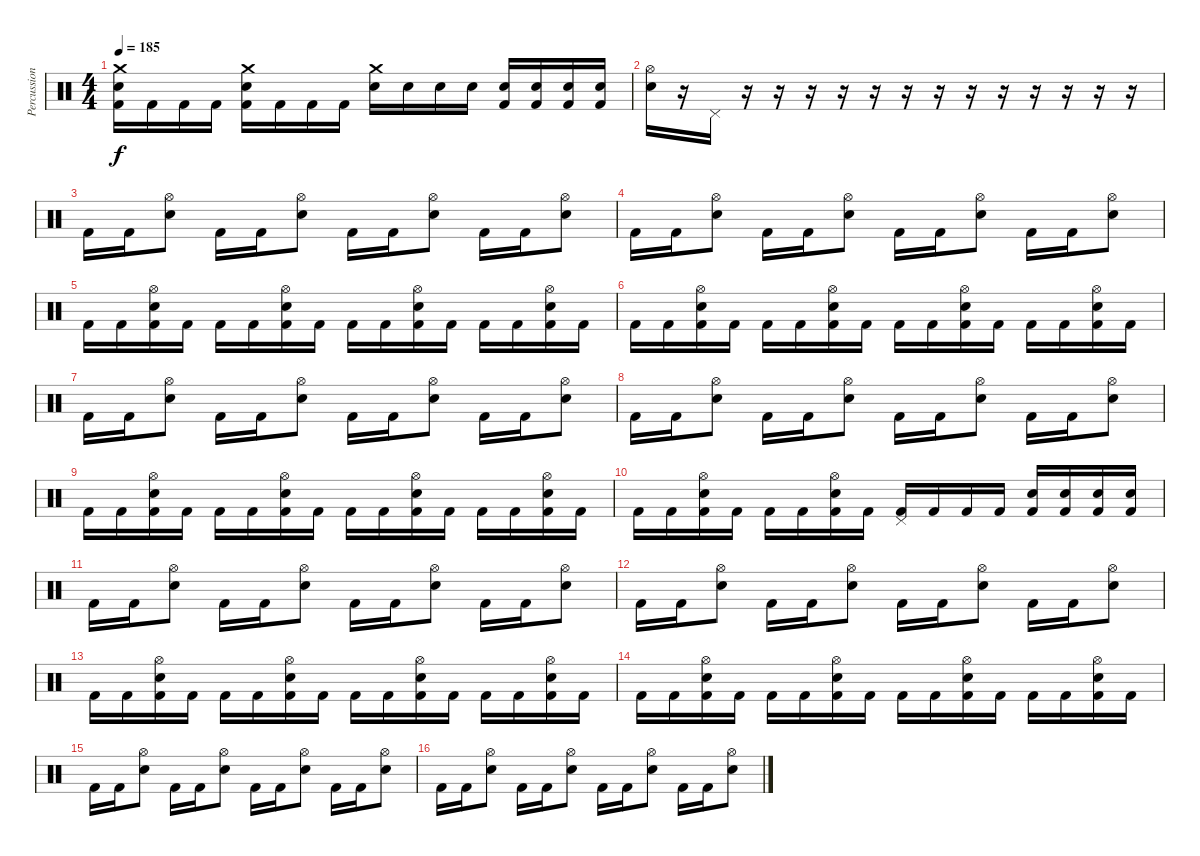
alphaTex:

\track ("Percussion" "Percussion") {instrument percussion}
\staff {score}
\articulation defaults
\ts (4 4)
\tempo 185
\clef neutral
\ks c
("Crash medium (hit)" "Electric Snare (hit)" "Kick (hit) 2").16{dy f} "Kick (hit) 2".16 "Kick (hit) 2".16 "Kick (hit) 2".16 ("Crash medium (hit)" "Electric Snare (hit)" "Kick (hit) 2").16 "Kick (hit) 2".16 "Kick (hit) 2".16 "Kick (hit) 2".16 ("Crash medium (hit)" "Electric Snare (hit)").16 "Electric Snare (hit)".16 "Electric Snare (hit)".16 "Electric Snare (hit)".16 ("Electric Snare (hit)" "Kick (hit) 2").16 ("Electric Snare (hit)" "Kick (hit) 2").16 ("Electric Snare (hit)" "Kick (hit) 2").16 ("Electric Snare (hit)" "Kick (hit) 2").16 |
("Hi-Hat (open)" "Electric Snare (hit)").16 r.16 "Pedal Hi-Hat (hit)".16 r.16 r.16 r.16 r.16 r.16 r.16 r.16 r.16 r.16 r.16 r.16 r.16 r.16 |
"Kick (hit) 2".16 "Kick (hit) 2".16 ("Hi-Hat (open)" "Electric Snare (hit)").8 "Kick (hit) 2".16 "Kick (hit) 2".16 ("Hi-Hat (open)" "Electric Snare (hit)").8 "Kick (hit) 2".16 "Kick (hit) 2".16 ("Hi-Hat (open)" "Electric Snare (hit)").8 "Kick (hit) 2".16 "Kick (hit) 2".16 ("Hi-Hat (open)" "Electric Snare (hit)").8 |
"Kick (hit) 2".16 "Kick (hit) 2".16 ("Hi-Hat (open)" "Electric Snare (hit)").8 "Kick (hit) 2".16 "Kick (hit) 2".16 ("Hi-Hat (open)" "Electric Snare (hit)").8 "Kick (hit) 2".16 "Kick (hit) 2".16 ("Hi-Hat (open)" "Electric Snare (hit)").8 "Kick (hit) 2".16 "Kick (hit) 2".16 ("Hi-Hat (open)" "Electric Snare (hit)").8 |
"Kick (hit) 2".16 "Kick (hit) 2".16 ("Hi-Hat (open)" "Electric Snare (hit)" "Kick (hit) 2").16 "Kick (hit) 2".16 "Kick (hit) 2".16 "Kick (hit) 2".16 ("Hi-Hat (open)" "Electric Snare (hit)" "Kick (hit) 2").16 "Kick (hit) 2".16 "Kick (hit) 2".16 "Kick (hit) 2".16 ("Hi-Hat (open)" "Electric Snare (hit)" "Kick (hit) 2").16 "Kick (hit) 2".16 "Kick (hit) 2".16 "Kick (hit) 2".16 ("Hi-Hat (open)" "Electric Snare (hit)" "Kick (hit) 2").16 "Kick (hit) 2".16 |
"Kick (hit) 2".16 "Kick (hit) 2".16 ("Hi-Hat (open)" "Electric Snare (hit)" "Kick (hit) 2").16 "Kick (hit) 2".16 "Kick (hit) 2".16 "Kick (hit) 2".16 ("Hi-Hat (open)" "Electric Snare (hit)" "Kick (hit) 2").16 "Kick (hit) 2".16 "Kick (hit) 2".16 "Kick (hit) 2".16 ("Hi-Hat (open)" "Electric Snare (hit)" "Kick (hit) 2").16 "Kick (hit) 2".16 "Kick (hit) 2".16 "Kick (hit) 2".16 ("Hi-Hat (open)" "Electric Snare (hit)" "Kick (hit) 2").16 "Kick (hit) 2".16 |
"Kick (hit) 2".16 "Kick (hit) 2".16 ("Hi-Hat (open)" "Electric Snare (hit)").8 "Kick (hit) 2".16 "Kick (hit) 2".16 ("Hi-Hat (open)" "Electric Snare (hit)").8 "Kick (hit) 2".16 "Kick (hit) 2".16 ("Hi-Hat (open)" "Electric Snare (hit)").8 "Kick (hit) 2".16 "Kick (hit) 2".16 ("Hi-Hat (open)" "Electric Snare (hit)").8 |
"Kick (hit) 2".16 "Kick (hit) 2".16 ("Hi-Hat (open)" "Electric Snare (hit)").8 "Kick (hit) 2".16 "Kick (hit) 2".16 ("Hi-Hat (open)" "Electric Snare (hit)").8 "Kick (hit) 2".16 "Kick (hit) 2".16 ("Hi-Hat (open)" "Electric Snare (hit)").8 "Kick (hit) 2".16 "Kick (hit) 2".16 ("Hi-Hat (open)" "Electric Snare (hit)").8 |
"Kick (hit) 2".16 "Kick (hit) 2".16 ("Hi-Hat (open)" "Electric Snare (hit)" "Kick (hit) 2").16 "Kick (hit) 2".16 "Kick (hit) 2".16 "Kick (hit) 2".16 ("Hi-Hat (open)" "Electric Snare (hit)" "Kick (hit) 2").16 "Kick (hit) 2".16 "Kick (hit) 2".16 "Kick (hit) 2".16 ("Hi-Hat (open)" "Electric Snare (hit)" "Kick (hit) 2").16 "Kick (hit) 2".16 "Kick (hit) 2".16 "Kick (hit) 2".16 ("Hi-Hat (open)" "Electric Snare (hit)" "Kick (hit) 2").16 "Kick (hit) 2".16 |
"Kick (hit) 2".16 "Kick (hit) 2".16 ("Hi-Hat (open)" "Electric Snare (hit)" "Kick (hit) 2").16 "Kick (hit) 2".16 "Kick (hit) 2".16 "Kick (hit) 2".16 ("Hi-Hat (open)" "Electric Snare (hit)" "Kick (hit) 2").16 "Kick (hit) 2".16 ("Pedal Hi-Hat (hit)" "Kick (hit) 2").16 "Kick (hit) 2".16 "Kick (hit) 2".16 "Kick (hit) 2".16 ("Electric Snare (hit)" "Kick (hit) 2").16 ("Electric Snare (hit)" "Kick (hit) 2").16 ("Electric Snare (hit)" "Kick (hit) 2").16 ("Electric Snare (hit)" "Kick (hit) 2").16 |
"Kick (hit) 2".16 "Kick (hit) 2".16 ("Hi-Hat (open)" "Electric Snare (hit)").8 "Kick (hit) 2".16 "Kick (hit) 2".16 ("Hi-Hat (open)" "Electric Snare (hit)").8 "Kick (hit) 2".16 "Kick (hit) 2".16 ("Hi-Hat (open)" "Electric Snare (hit)").8 "Kick (hit) 2".16 "Kick (hit) 2".16 ("Hi-Hat (open)" "Electric Snare (hit)").8 |
"Kick (hit) 2".16 "Kick (hit) 2".16 ("Hi-Hat (open)" "Electric Snare (hit)").8 "Kick (hit) 2".16 "Kick (hit) 2".16 ("Hi-Hat (open)" "Electric Snare (hit)").8 "Kick (hit) 2".16 "Kick (hit) 2".16 ("Hi-Hat (open)" "Electric Snare (hit)").8 "Kick (hit) 2".16 "Kick (hit) 2".16 ("Hi-Hat (open)" "Electric Snare (hit)").8 |
"Kick (hit) 2".16 "Kick (hit) 2".16 ("Hi-Hat (open)" "Electric Snare (hit)" "Kick (hit) 2").16 "Kick (hit) 2".16 "Kick (hit) 2".16 "Kick (hit) 2".16 ("Hi-Hat (open)" "Electric Snare (hit)" "Kick (hit) 2").16 "Kick (hit) 2".16 "Kick (hit) 2".16 "Kick (hit) 2".16 ("Hi-Hat (open)" "Electric Snare (hit)" "Kick (hit) 2").16 "Kick (hit) 2".16 "Kick (hit) 2".16 "Kick (hit) 2".16 ("Hi-Hat (open)" "Electric Snare (hit)" "Kick (hit) 2").16 "Kick (hit) 2".16 |
"Kick (hit) 2".16 "Kick (hit) 2".16 ("Hi-Hat (open)" "Electric Snare (hit)" "Kick (hit) 2").16 "Kick (hit) 2".16 "Kick (hit) 2".16 "Kick (hit) 2".16 ("Hi-Hat (open)" "Electric Snare (hit)" "Kick (hit) 2").16 "Kick (hit) 2".16 "Kick (hit) 2".16 "Kick (hit) 2".16 ("Hi-Hat (open)" "Electric Snare (hit)" "Kick (hit) 2").16 "Kick (hit) 2".16 "Kick (hit) 2".16 "Kick (hit) 2".16 ("Hi-Hat (open)" "Electric Snare (hit)" "Kick (hit) 2").16 "Kick (hit) 2".16 |
"Kick (hit) 2".16 "Kick (hit) 2".16 ("Hi-Hat (open)" "Electric Snare (hit)").8 "Kick (hit) 2".16 "Kick (hit) 2".16 ("Hi-Hat (open)" "Electric Snare (hit)").8 "Kick (hit) 2".16 "Kick (hit) 2".16 ("Hi-Hat (open)" "Electric Snare (hit)").8 "Kick (hit) 2".16 "Kick (hit) 2".16 ("Hi-Hat (open)" "Electric Snare (hit)").8 |
"Kick (hit) 2".16 "Kick (hit) 2".16 ("Hi-Hat (open)" "Electric Snare (hit)").8 "Kick (hit) 2".16 "Kick (hit) 2".16 ("Hi-Hat (open)" "Electric Snare (hit)").8 "Kick (hit) 2".16 "Kick (hit) 2".16 ("Hi-Hat (open)" "Electric Snare (hit)").8 "Kick (hit) 2".16 "Kick (hit) 2".16 ("Hi-Hat (open)" "Electric Snare (hit)").8
